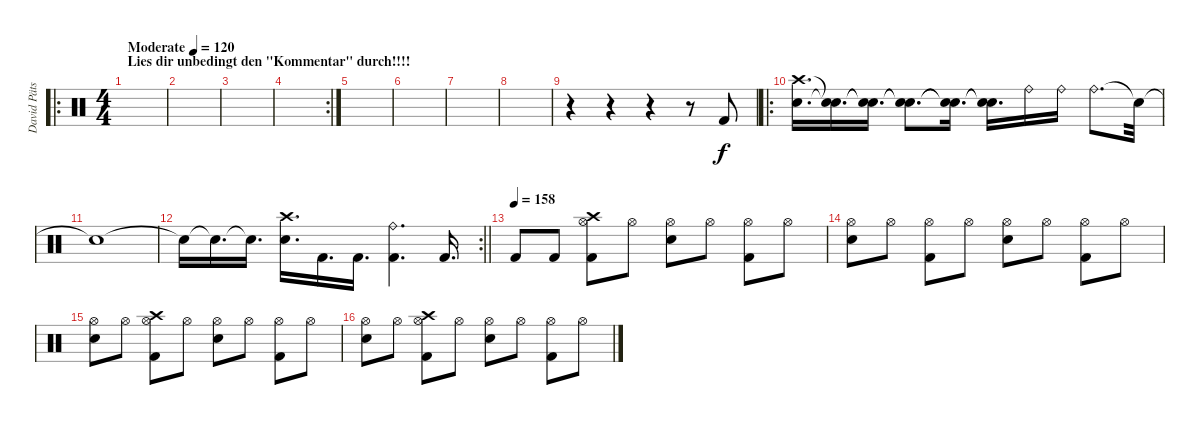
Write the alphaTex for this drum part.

\track ("David Pätsch" "David Päts") {instrument percussion}
\staff {score}
\articulation defaults
\ro
\ts (4 4)
\section ("" "Lies dir unbedingt den \"Kommentar\" durch!!!!")
\tempo (120 "Moderate")
\tempo 123
\tempo (120 "Moderate")
\clef neutral
\ks c
|
|
|
\rc 2
|
|
|
|
|
r.4 r.4 r.4 r.8 "Kick (hit) 2".8 |
\ro
("Crash high (hit)" "Snare (hit) 2").16{d} ("Snare (hit)"{t} "Snare (hit)"{t}).16{d} ("Snare (hit)"{t} "Snare (hit)"{t}).16{d} ("Snare (hit)"{t} "Snare (hit)"{t}).8{d} ("Snare (hit)"{t} "Snare (hit)"{t}).16{d} ("Snare (hit)"{t} "Snare (hit)"{t}).16{d} "Ride (bell)".16 "Ride (bell)".16 "Ride (bell)".8{d} "Snare (hit)"{t}.32 |
"Snare (hit)"{t}.1 |
\rc 2
\barLineRight lightlight "Snare (hit)"{t}.16 "Snare (hit)"{t}.16{d} "Snare (hit)"{t}.16{d}
("Crash high (hit)" "Snare (hit) 2").16{d} "Kick (hit) 2".16{d} "Kick (hit) 2".16{d} ("Ride (bell)" "Kick (hit) 2").4{d} "Kick (hit) 2".16{d} |
\section ("" "")
\tempo (158)
"Kick (hit) 2".8 "Kick (hit) 2".8 ("Crash high (hit)" "Hi-Hat (open)" "Kick (hit) 2").8 "Hi-Hat (open)".8 ("Hi-Hat (open)" "Snare (hit) 2").8 "Hi-Hat (open)".8 ("Hi-Hat (open)" "Kick (hit) 2").8 "Hi-Hat (open)".8 |
("Hi-Hat (open)" "Snare (hit) 2").8 "Hi-Hat (open)".8 ("Hi-Hat (open)" "Kick (hit) 2").8 "Hi-Hat (open)".8 ("Hi-Hat (open)" "Snare (hit) 2").8 "Hi-Hat (open)".8 ("Hi-Hat (open)" "Kick (hit) 2").8 "Hi-Hat (open)".8 |
("Hi-Hat (open)" "Snare (hit) 2").8 "Hi-Hat (open)".8 ("Crash high (hit)" "Hi-Hat (open)" "Kick (hit) 2").8 "Hi-Hat (open)".8 ("Hi-Hat (open)" "Snare (hit) 2").8 "Hi-Hat (open)".8 ("Hi-Hat (open)" "Kick (hit) 2").8 "Hi-Hat (open)".8 |
("Hi-Hat (open)" "Snare (hit) 2").8 "Hi-Hat (open)".8 ("Crash high (hit)" "Hi-Hat (open)" "Kick (hit) 2").8 "Hi-Hat (open)".8 ("Hi-Hat (open)" "Snare (hit) 2").8 "Hi-Hat (open)".8 ("Hi-Hat (open)" "Kick (hit) 2").8 "Hi-Hat (open)".8
